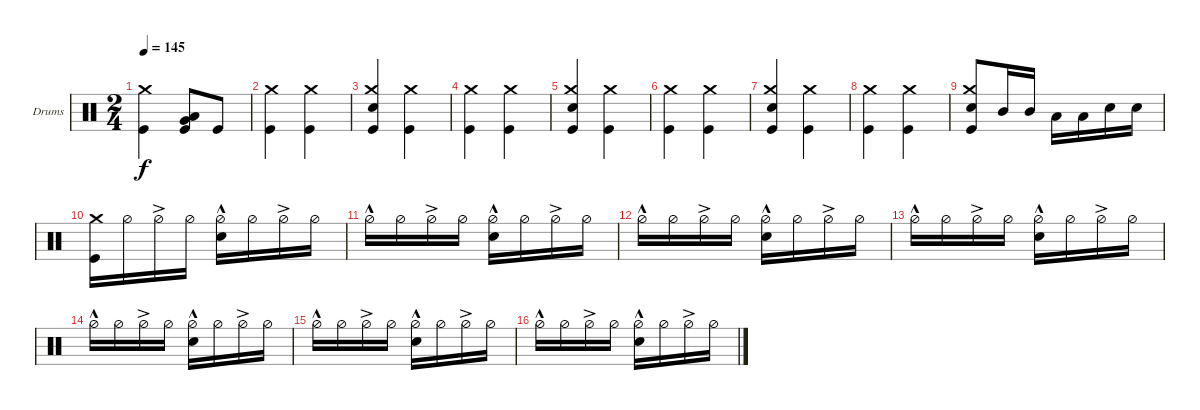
\bracketExtendMode groupsimilarinstruments
\firstSystemTrackNameOrientation horizontal
\otherSystemsTrackNameOrientation horizontal
\track ("Drumkit" "Drums") {instrument percussion}
\staff {score}
\articulation defaults
\ts (2 4)
\tempo 145
\clef neutral
\ks c
("Kick (hit)" "Crash medium (hit)").4{dy f} ("Kick (hit)" "Low Tom (hit)" "Very Low Tom (hit)").8 "Kick (hit)".8 |
("Kick (hit)" "Crash medium (hit)").4 ("Kick (hit)" "Crash medium (hit)").4 |
("Kick (hit)" "Snare (hit) 2" "Crash medium (hit)").4 ("Kick (hit)" "Crash medium (hit)").4 |
("Kick (hit)" "Crash medium (hit)").4 ("Kick (hit)" "Crash medium (hit)").4 |
("Kick (hit)" "Snare (hit) 2" "Crash medium (hit)").4 ("Kick (hit)" "Crash medium (hit)").4 |
("Kick (hit)" "Crash medium (hit)").4 ("Kick (hit)" "Crash medium (hit)").4 |
("Kick (hit)" "Snare (hit) 2" "Crash medium (hit)").4 ("Kick (hit)" "Crash medium (hit)").4 |
("Kick (hit)" "Crash medium (hit)").4 ("Kick (hit)" "Crash medium (hit)").4 |
("Kick (hit)" "Snare (hit) 2" "Crash medium (hit)").8 "Mid Tom (hit)".16 "Mid Tom (hit)".16 "Low Tom (hit)".16 "Low Tom (hit)".16 "Snare (hit) 2".16 "Snare (hit) 2".16 |
("Crash medium (hit)" "Kick (hit)").16 "Hi-Hat (half)".16 "Hi-Hat (half)"{ac}.16 "Hi-Hat (half)".16 ("Hi-Hat (half)"{hac} "Snare (hit) 2").16 "Hi-Hat (half)".16 "Hi-Hat (half)"{ac}.16 "Hi-Hat (half)".16 |
"Hi-Hat (half)"{hac}.16 "Hi-Hat (half)".16 "Hi-Hat (half)"{ac}.16 "Hi-Hat (half)".16 ("Hi-Hat (half)"{hac} "Snare (hit) 2").16 "Hi-Hat (half)".16 "Hi-Hat (half)"{ac}.16 "Hi-Hat (half)".16 |
"Hi-Hat (half)"{hac}.16 "Hi-Hat (half)".16 "Hi-Hat (half)"{ac}.16 "Hi-Hat (half)".16 ("Hi-Hat (half)"{hac} "Snare (hit) 2").16 "Hi-Hat (half)".16 "Hi-Hat (half)"{ac}.16 "Hi-Hat (half)".16 |
"Hi-Hat (half)"{hac}.16 "Hi-Hat (half)".16 "Hi-Hat (half)"{ac}.16 "Hi-Hat (half)".16 ("Hi-Hat (half)"{hac} "Snare (hit) 2").16 "Hi-Hat (half)".16 "Hi-Hat (half)"{ac}.16 "Hi-Hat (half)".16 |
"Hi-Hat (half)"{hac}.16 "Hi-Hat (half)".16 "Hi-Hat (half)"{ac}.16 "Hi-Hat (half)".16 ("Hi-Hat (half)"{hac} "Snare (hit) 2").16 "Hi-Hat (half)".16 "Hi-Hat (half)"{ac}.16 "Hi-Hat (half)".16 |
"Hi-Hat (half)"{hac}.16 "Hi-Hat (half)".16 "Hi-Hat (half)"{ac}.16 "Hi-Hat (half)".16 ("Hi-Hat (half)"{hac} "Snare (hit) 2").16 "Hi-Hat (half)".16 "Hi-Hat (half)"{ac}.16 "Hi-Hat (half)".16 |
"Hi-Hat (half)"{hac}.16 "Hi-Hat (half)".16 "Hi-Hat (half)"{ac}.16 "Hi-Hat (half)".16 ("Hi-Hat (half)"{hac} "Snare (hit) 2").16 "Hi-Hat (half)".16 "Hi-Hat (half)"{ac}.16 "Hi-Hat (half)".16
